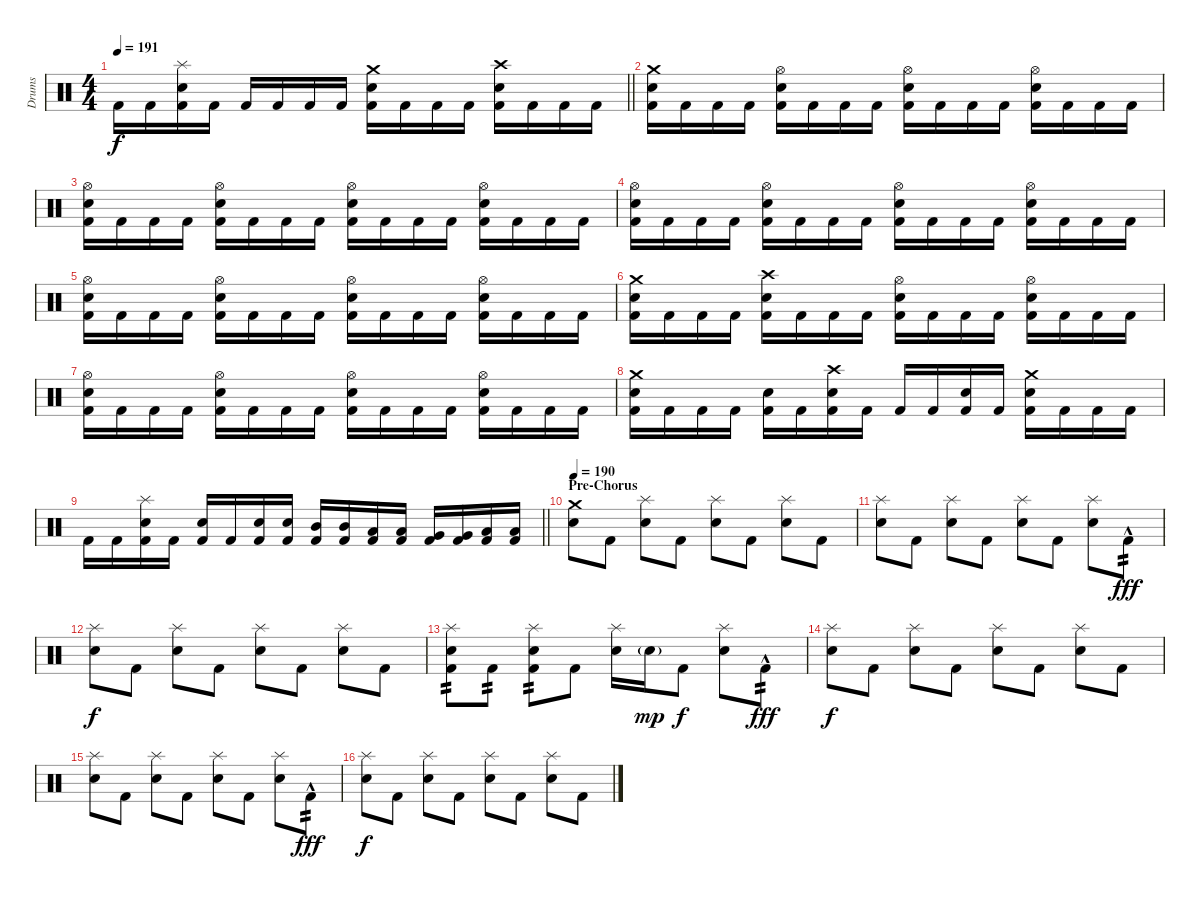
\track ("Drums" "Drums") {instrument percussion}
\staff {score}
\articulation defaults
\ts (4 4)
\tempo 191
\clef neutral
\barLineRight lightlight
\ks c "Kick (hit) 2".16{dy f} "Kick (hit) 2".16
("Kick (hit) 2" "Snare (hit) 2" "Splash (hit)").16 "Kick (hit) 2".16 "Kick (hit) 2".16 "Kick (hit) 2".16 "Kick (hit) 2".16 "Kick (hit) 2".16 ("Kick (hit) 2" "Snare (hit) 2" "Crash medium (hit)").16 "Kick (hit) 2".16 "Kick (hit) 2".16 "Kick (hit) 2".16 ("Kick (hit) 2" "Snare (hit) 2" "Crash high (hit)").16 "Kick (hit) 2".16 "Kick (hit) 2".16 "Kick (hit) 2".16 |
\section ("" "")
("Kick (hit) 2" "Snare (hit) 2" "Crash medium (hit)").16 "Kick (hit) 2".16 "Kick (hit) 2".16 "Kick (hit) 2".16 ("Kick (hit) 2" "Snare (hit) 2" "Hi-Hat (open)").16 "Kick (hit) 2".16 "Kick (hit) 2".16 "Kick (hit) 2".16 ("Kick (hit) 2" "Snare (hit) 2" "Hi-Hat (open)").16 "Kick (hit) 2".16 "Kick (hit) 2".16 "Kick (hit) 2".16 ("Kick (hit) 2" "Snare (hit) 2" "Hi-Hat (open)").16 "Kick (hit) 2".16 "Kick (hit) 2".16 "Kick (hit) 2".16 |
("Kick (hit) 2" "Snare (hit) 2" "Hi-Hat (open)").16 "Kick (hit) 2".16 "Kick (hit) 2".16 "Kick (hit) 2".16 ("Kick (hit) 2" "Snare (hit) 2" "Hi-Hat (open)").16 "Kick (hit) 2".16 "Kick (hit) 2".16 "Kick (hit) 2".16 ("Kick (hit) 2" "Snare (hit) 2" "Hi-Hat (open)").16 "Kick (hit) 2".16 "Kick (hit) 2".16 "Kick (hit) 2".16 ("Kick (hit) 2" "Snare (hit) 2" "Hi-Hat (open)").16 "Kick (hit) 2".16 "Kick (hit) 2".16 "Kick (hit) 2".16 |
("Kick (hit) 2" "Snare (hit) 2" "Hi-Hat (open)").16 "Kick (hit) 2".16 "Kick (hit) 2".16 "Kick (hit) 2".16 ("Kick (hit) 2" "Snare (hit) 2" "Hi-Hat (open)").16 "Kick (hit) 2".16 "Kick (hit) 2".16 "Kick (hit) 2".16 ("Kick (hit) 2" "Snare (hit) 2" "Hi-Hat (open)").16 "Kick (hit) 2".16 "Kick (hit) 2".16 "Kick (hit) 2".16 ("Kick (hit) 2" "Snare (hit) 2" "Hi-Hat (open)").16 "Kick (hit) 2".16 "Kick (hit) 2".16 "Kick (hit) 2".16 |
("Kick (hit) 2" "Snare (hit) 2" "Hi-Hat (open)").16 "Kick (hit) 2".16 "Kick (hit) 2".16 "Kick (hit) 2".16 ("Kick (hit) 2" "Snare (hit) 2" "Hi-Hat (open)").16 "Kick (hit) 2".16 "Kick (hit) 2".16 "Kick (hit) 2".16 ("Kick (hit) 2" "Snare (hit) 2" "Hi-Hat (open)").16 "Kick (hit) 2".16 "Kick (hit) 2".16 "Kick (hit) 2".16 ("Kick (hit) 2" "Snare (hit) 2" "Hi-Hat (open)").16 "Kick (hit) 2".16 "Kick (hit) 2".16 "Kick (hit) 2".16 |
("Kick (hit) 2" "Snare (hit) 2" "Crash medium (hit)").16 "Kick (hit) 2".16 "Kick (hit) 2".16 "Kick (hit) 2".16 ("Kick (hit) 2" "Snare (hit) 2" "Crash high (hit)").16 "Kick (hit) 2".16 "Kick (hit) 2".16 "Kick (hit) 2".16 ("Kick (hit) 2" "Snare (hit) 2" "Hi-Hat (open)").16 "Kick (hit) 2".16 "Kick (hit) 2".16 "Kick (hit) 2".16 ("Kick (hit) 2" "Snare (hit) 2" "Hi-Hat (open)").16 "Kick (hit) 2".16 "Kick (hit) 2".16 "Kick (hit) 2".16 |
("Kick (hit) 2" "Snare (hit) 2" "Hi-Hat (open)").16 "Kick (hit) 2".16 "Kick (hit) 2".16 "Kick (hit) 2".16 ("Kick (hit) 2" "Snare (hit) 2" "Hi-Hat (open)").16 "Kick (hit) 2".16 "Kick (hit) 2".16 "Kick (hit) 2".16 ("Kick (hit) 2" "Snare (hit) 2" "Hi-Hat (open)").16 "Kick (hit) 2".16 "Kick (hit) 2".16 "Kick (hit) 2".16 ("Kick (hit) 2" "Snare (hit) 2" "Hi-Hat (open)").16 "Kick (hit) 2".16 "Kick (hit) 2".16 "Kick (hit) 2".16 |
("Kick (hit) 2" "Snare (hit) 2" "Crash medium (hit)").16 "Kick (hit) 2".16 "Kick (hit) 2".16 "Kick (hit) 2".16 ("Kick (hit) 2" "Snare (hit) 2").16 "Kick (hit) 2".16 ("Kick (hit) 2" "Snare (hit) 2" "Crash high (hit)").16 "Kick (hit) 2".16 "Kick (hit) 2".16 "Kick (hit) 2".16 ("Kick (hit) 2" "Snare (hit) 2").16 "Kick (hit) 2".16 ("Kick (hit) 2" "Snare (hit) 2" "Crash medium (hit)").16 "Kick (hit) 2".16 "Kick (hit) 2".16 "Kick (hit) 2".16 |
\barLineRight lightlight "Kick (hit) 2".16 "Kick (hit) 2".16
("Kick (hit) 2" "Snare (hit) 2" "Splash (hit)").16 "Kick (hit) 2".16 ("Kick (hit) 2" "Snare (hit) 2").16 "Kick (hit) 2".16 ("Kick (hit) 2" "Snare (hit) 2").16 ("Kick (hit) 2" "Snare (hit) 2").16 ("Kick (hit) 2" "Mid Tom (hit)").16 ("Kick (hit) 2" "Mid Tom (hit)").16 ("Kick (hit) 2" "Low Tom (hit)").16 ("Kick (hit) 2" "Low Tom (hit)").16 ("Kick (hit) 2" "Very Low Tom (hit)").16 ("Kick (hit) 2" "Very Low Tom (hit)").16 ("Kick (hit) 2" "Low Floor Tom (hit)").16 ("Kick (hit) 2" "Low Floor Tom (hit)").16 |
\section ("" "Pre-Chorus")
\tempo 190
("Snare (hit) 2" "Crash medium (hit)").8 "Kick (hit) 2".8 ("Snare (hit) 2" "Splash (hit)").8 "Kick (hit) 2".8 ("Snare (hit) 2" "Splash (hit)").8 "Kick (hit) 2".8 ("Snare (hit) 2" "Splash (hit)").8 "Kick (hit) 2".8 |
("Snare (hit) 2" "Splash (hit)").8 "Kick (hit) 2".8 ("Snare (hit) 2" "Splash (hit)").8 "Kick (hit) 2".8 ("Snare (hit) 2" "Splash (hit)").8 "Kick (hit) 2".8 ("Snare (hit) 2" "Splash (hit)").8 "Kick (hit) 2"{hac}.8{tp 2 dy fff} |
("Snare (hit) 2" "Splash (hit)").8{dy f} "Kick (hit) 2".8 ("Snare (hit) 2" "Splash (hit)").8 "Kick (hit) 2".8 ("Snare (hit) 2" "Splash (hit)").8 "Kick (hit) 2".8 ("Snare (hit) 2" "Splash (hit)").8 "Kick (hit) 2".8 |
("Kick (hit) 2" "Snare (hit) 2" "Splash (hit)").8{tp 2} "Kick (hit) 2".8{tp 2} ("Kick (hit) 2" "Snare (hit) 2" "Splash (hit)").8{tp 2} "Kick (hit) 2".8 ("Snare (hit) 2" "Splash (hit)").16 "Snare (hit) 2"{g}.16{dy mp} "Kick (hit) 2".8{dy f} ("Snare (hit) 2" "Splash (hit)").8 "Kick (hit) 2"{hac}.8{tp 2 dy fff} |
("Snare (hit) 2" "Splash (hit)").8{dy f} "Kick (hit) 2".8 ("Snare (hit) 2" "Splash (hit)").8 "Kick (hit) 2".8 ("Snare (hit) 2" "Splash (hit)").8 "Kick (hit) 2".8 ("Snare (hit) 2" "Splash (hit)").8 "Kick (hit) 2".8 |
("Snare (hit) 2" "Splash (hit)").8 "Kick (hit) 2".8 ("Snare (hit) 2" "Splash (hit)").8 "Kick (hit) 2".8 ("Snare (hit) 2" "Splash (hit)").8 "Kick (hit) 2".8 ("Snare (hit) 2" "Splash (hit)").8 "Kick (hit) 2"{hac}.8{tp 2 dy fff} |
("Snare (hit) 2" "Splash (hit)").8{dy f} "Kick (hit) 2".8 ("Snare (hit) 2" "Splash (hit)").8 "Kick (hit) 2".8 ("Snare (hit) 2" "Splash (hit)").8 "Kick (hit) 2".8 ("Snare (hit) 2" "Splash (hit)").8 "Kick (hit) 2".8
